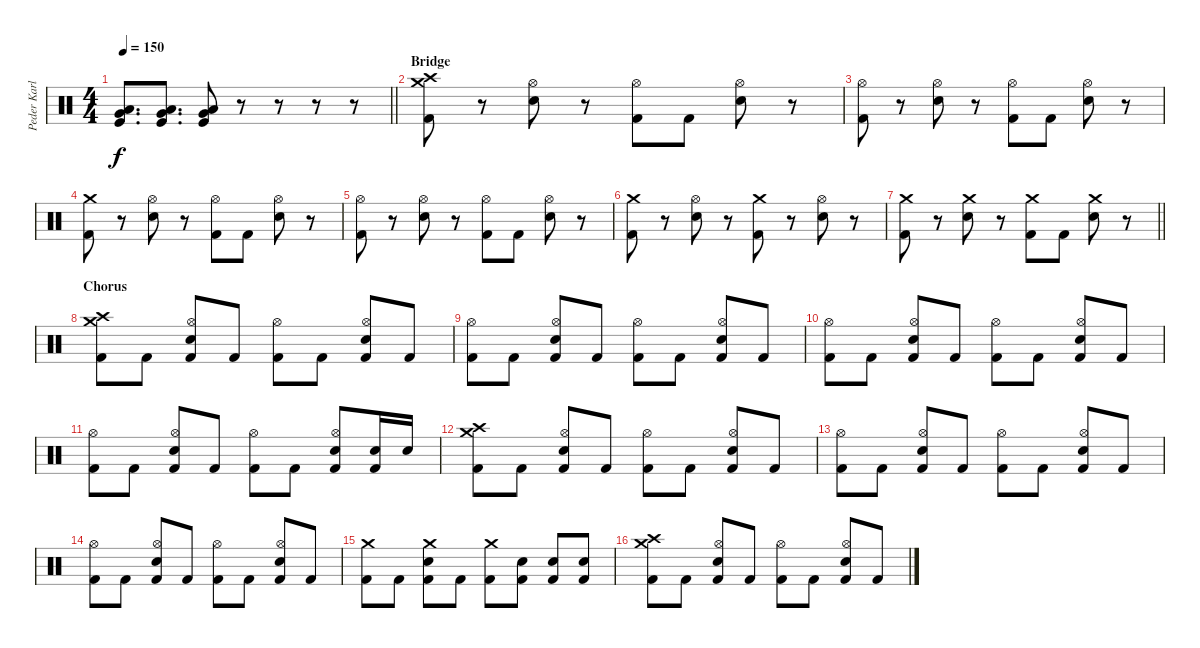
\track ("Peder Karlsson" "Peder Karl") {instrument percussion}
\staff {score}
\articulation defaults
\ts (4 4)
\tempo 150
\clef neutral
\barLineRight lightlight
\ks c
("Very Low Tom (hit)" "Low Floor Tom (hit)" "Kick (hit)").8{d dy f} ("Very Low Tom (hit)" "Low Floor Tom (hit)" "Kick (hit)").8{d} ("Very Low Tom (hit)" "Low Floor Tom (hit)" "Kick (hit)").8 r.8 r.8 r.8 r.8 |
\section ("" "Bridge")
("Crash medium (hit)" "Crash high (hit)" "Kick (hit) 2").8 r.8 ("Hi-Hat (open)" "Snare (hit) 2").8 r.8 ("Hi-Hat (open)" "Kick (hit) 2").8 "Kick (hit) 2".8 ("Hi-Hat (open)" "Snare (hit) 2").8 r.8 |
("Hi-Hat (open)" "Kick (hit) 2").8 r.8 ("Hi-Hat (open)" "Snare (hit) 2").8 r.8 ("Hi-Hat (open)" "Kick (hit) 2").8 "Kick (hit) 2".8 ("Hi-Hat (open)" "Snare (hit) 2").8 r.8 |
("Crash medium (hit)" "Kick (hit) 2").8 r.8 ("Hi-Hat (open)" "Snare (hit) 2").8 r.8 ("Hi-Hat (open)" "Kick (hit) 2").8 "Kick (hit) 2".8 ("Hi-Hat (open)" "Snare (hit) 2").8 r.8 |
("Hi-Hat (open)" "Kick (hit) 2").8 r.8 ("Hi-Hat (open)" "Snare (hit) 2").8 r.8 ("Hi-Hat (open)" "Kick (hit) 2").8 "Kick (hit) 2".8 ("Hi-Hat (open)" "Snare (hit) 2").8 r.8 |
("Crash medium (hit)" "Kick (hit) 2").8 r.8 ("Hi-Hat (open)" "Snare (hit) 2").8 r.8 ("Crash medium (hit)" "Kick (hit) 2").8 r.8 ("Hi-Hat (open)" "Snare (hit) 2").8 r.8 |
\barLineRight lightlight
("Crash medium (hit)" "Kick (hit) 2").8 r.8 ("Crash medium (hit)" "Snare (hit) 2").8 r.8 ("Crash medium (hit)" "Kick (hit) 2").8 "Kick (hit) 2".8 ("Crash medium (hit)" "Snare (hit) 2").8 r.8 |
\section ("" "Chorus")
("Crash medium (hit)" "Crash high (hit)" "Kick (hit) 2").8 "Kick (hit) 2".8 ("Hi-Hat (open)" "Snare (hit) 2" "Kick (hit) 2").8 "Kick (hit) 2".8 ("Hi-Hat (open)" "Kick (hit) 2").8 "Kick (hit) 2".8 ("Hi-Hat (open)" "Snare (hit) 2" "Kick (hit) 2").8 "Kick (hit) 2".8 |
("Hi-Hat (open)" "Kick (hit) 2").8 "Kick (hit) 2".8 ("Hi-Hat (open)" "Snare (hit) 2" "Kick (hit) 2").8 "Kick (hit) 2".8 ("Hi-Hat (open)" "Kick (hit) 2").8 "Kick (hit) 2".8 ("Hi-Hat (open)" "Snare (hit) 2" "Kick (hit) 2").8 "Kick (hit) 2".8 |
("Hi-Hat (open)" "Kick (hit) 2").8 "Kick (hit) 2".8 ("Hi-Hat (open)" "Snare (hit) 2" "Kick (hit) 2").8 "Kick (hit) 2".8 ("Hi-Hat (open)" "Kick (hit) 2").8 "Kick (hit) 2".8 ("Hi-Hat (open)" "Snare (hit) 2" "Kick (hit) 2").8 "Kick (hit) 2".8 |
("Hi-Hat (open)" "Kick (hit) 2").8 "Kick (hit) 2".8 ("Hi-Hat (open)" "Snare (hit) 2" "Kick (hit) 2").8 "Kick (hit) 2".8 ("Hi-Hat (open)" "Kick (hit) 2").8 "Kick (hit) 2".8 ("Hi-Hat (open)" "Snare (hit) 2" "Kick (hit) 2").8 ("Snare (hit) 2" "Kick (hit) 2").16 "Snare (hit) 2".16 |
("Crash medium (hit)" "Crash high (hit)" "Kick (hit) 2").8 "Kick (hit) 2".8 ("Hi-Hat (open)" "Snare (hit) 2" "Kick (hit) 2").8 "Kick (hit) 2".8 ("Hi-Hat (open)" "Kick (hit) 2").8 "Kick (hit) 2".8 ("Hi-Hat (open)" "Snare (hit) 2" "Kick (hit) 2").8 "Kick (hit) 2".8 |
("Hi-Hat (open)" "Kick (hit) 2").8 "Kick (hit) 2".8 ("Hi-Hat (open)" "Snare (hit) 2" "Kick (hit) 2").8 "Kick (hit) 2".8 ("Hi-Hat (open)" "Kick (hit) 2").8 "Kick (hit) 2".8 ("Hi-Hat (open)" "Snare (hit) 2" "Kick (hit) 2").8 "Kick (hit) 2".8 |
("Hi-Hat (open)" "Kick (hit) 2").8 "Kick (hit) 2".8 ("Hi-Hat (open)" "Snare (hit) 2" "Kick (hit) 2").8 "Kick (hit) 2".8 ("Hi-Hat (open)" "Kick (hit) 2").8 "Kick (hit) 2".8 ("Hi-Hat (open)" "Snare (hit) 2" "Kick (hit) 2").8 "Kick (hit) 2".8 |
("Crash medium (hit)" "Kick (hit) 2").8 "Kick (hit) 2".8 ("Crash medium (hit)" "Snare (hit) 2" "Kick (hit) 2").8 "Kick (hit) 2".8 ("Crash medium (hit)" "Kick (hit) 2").8 ("Snare (hit) 2" "Kick (hit) 2").8 ("Snare (hit) 2" "Kick (hit) 2").8 ("Snare (hit) 2" "Kick (hit) 2").8 |
("Crash medium (hit)" "Crash high (hit)" "Kick (hit) 2").8 "Kick (hit) 2".8 ("Hi-Hat (open)" "Snare (hit) 2" "Kick (hit) 2").8 "Kick (hit) 2".8 ("Hi-Hat (open)" "Kick (hit) 2").8 "Kick (hit) 2".8 ("Hi-Hat (open)" "Snare (hit) 2" "Kick (hit) 2").8 "Kick (hit) 2".8
